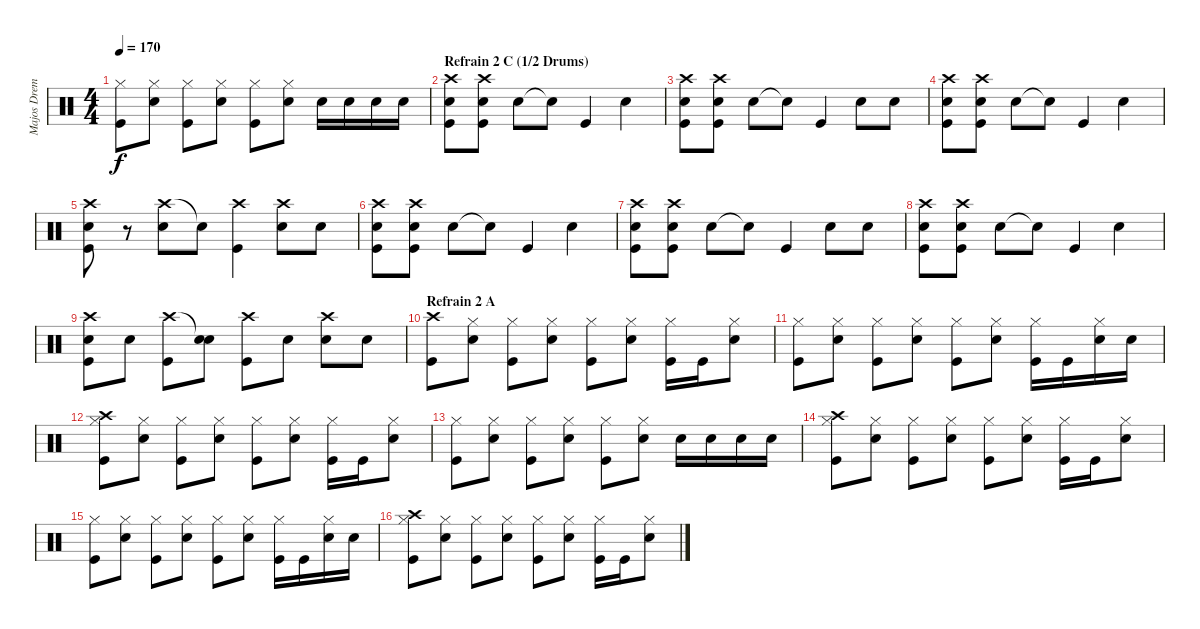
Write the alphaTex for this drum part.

\track ("Majos Dremmelei" "Majos Drem") {instrument percussion}
\staff {score}
\articulation defaults
\ts (4 4)
\tempo 170
\clef neutral
\ks c
("Hi-Hat (closed)" "Kick (hit)").8{dy f} ("Hi-Hat (closed)" "Electric Snare (hit)").8 ("Hi-Hat (closed)" "Kick (hit)").8 ("Hi-Hat (closed)" "Electric Snare (hit)").8 ("Hi-Hat (closed)" "Kick (hit)").8 ("Hi-Hat (closed)" "Electric Snare (hit)").8 "Electric Snare (hit)".16 "Electric Snare (hit)".16 "Electric Snare (hit)".16 "Electric Snare (hit)".16 |
\section ("" "Refrain 2 C (1/2 Drums)")
("Crash high (hit)" "Electric Snare (hit)" "Kick (hit)").8 ("Crash high (hit)" "Electric Snare (hit)" "Kick (hit)").8 "Electric Snare (hit)".8 "Snare (hit)"{t}.8 "Kick (hit)".4 "Electric Snare (hit)".4 |
("Crash high (hit)" "Electric Snare (hit)" "Kick (hit)").8 ("Crash high (hit)" "Electric Snare (hit)" "Kick (hit)").8 "Electric Snare (hit)".8 "Snare (hit)"{t}.8 "Kick (hit)".4 "Electric Snare (hit)".8 "Electric Snare (hit)".8 |
("Crash high (hit)" "Electric Snare (hit)" "Kick (hit)").8 ("Crash high (hit)" "Electric Snare (hit)" "Kick (hit)").8 "Electric Snare (hit)".8 "Snare (hit)"{t}.8 "Kick (hit)".4 "Electric Snare (hit)".4 |
("Crash high (hit)" "Electric Snare (hit)" "Kick (hit)").8 r.8 ("Crash high (hit)" "Electric Snare (hit)").8 "Snare (hit)"{t}.8 ("Crash high (hit)" "Kick (hit)").4 ("Crash high (hit)" "Electric Snare (hit)").8 "Electric Snare (hit)".8 |
("Crash high (hit)" "Electric Snare (hit)" "Kick (hit)").8 ("Crash high (hit)" "Electric Snare (hit)" "Kick (hit)").8 "Electric Snare (hit)".8 "Snare (hit)"{t}.8 "Kick (hit)".4 "Electric Snare (hit)".4 |
("Crash high (hit)" "Electric Snare (hit)" "Kick (hit)").8 ("Crash high (hit)" "Electric Snare (hit)" "Kick (hit)").8 "Electric Snare (hit)".8 "Snare (hit)"{t}.8 "Kick (hit)".4 "Electric Snare (hit)".8 "Electric Snare (hit)".8 |
("Crash high (hit)" "Electric Snare (hit)" "Kick (hit)").8 ("Crash high (hit)" "Electric Snare (hit)" "Kick (hit)").8 "Electric Snare (hit)".8 "Snare (hit)"{t}.8 "Kick (hit)".4 "Electric Snare (hit)".4 |
("Crash high (hit)" "Electric Snare (hit)" "Kick (hit)").8 "Electric Snare (hit)".8 ("Crash high (hit)" "Kick (hit)").8 ("Snare (hit)"{t} "Electric Snare (hit)").8 ("Crash high (hit)" "Kick (hit)").8 "Electric Snare (hit)".8 ("Crash high (hit)" "Electric Snare (hit)").8 "Electric Snare (hit)".8 |
\section ("" "Refrain 2 A")
("Crash high (hit)" "Kick (hit)").8 ("Hi-Hat (closed)" "Electric Snare (hit)").8 ("Hi-Hat (closed)" "Kick (hit)").8 ("Hi-Hat (closed)" "Electric Snare (hit)").8 ("Hi-Hat (closed)" "Kick (hit)").8 ("Hi-Hat (closed)" "Electric Snare (hit)").8 ("Hi-Hat (closed)" "Kick (hit)").16 "Kick (hit)".16 ("Hi-Hat (closed)" "Electric Snare (hit)").8 |
("Hi-Hat (closed)" "Kick (hit)").8 ("Hi-Hat (closed)" "Electric Snare (hit)").8 ("Hi-Hat (closed)" "Kick (hit)").8 ("Hi-Hat (closed)" "Electric Snare (hit)").8 ("Hi-Hat (closed)" "Kick (hit)").8 ("Hi-Hat (closed)" "Electric Snare (hit)").8 ("Hi-Hat (closed)" "Kick (hit)").16 "Kick (hit)".16 ("Hi-Hat (closed)" "Electric Snare (hit)").16 "Electric Snare (hit)".16 |
("Crash high (hit)" "Hi-Hat (closed)" "Kick (hit)").8 ("Hi-Hat (closed)" "Electric Snare (hit)").8 ("Hi-Hat (closed)" "Kick (hit)").8 ("Hi-Hat (closed)" "Electric Snare (hit)").8 ("Hi-Hat (closed)" "Kick (hit)").8 ("Hi-Hat (closed)" "Electric Snare (hit)").8 ("Hi-Hat (closed)" "Kick (hit)").16 "Kick (hit)".16 ("Hi-Hat (closed)" "Electric Snare (hit)").8 |
("Hi-Hat (closed)" "Kick (hit)").8 ("Hi-Hat (closed)" "Electric Snare (hit)").8 ("Hi-Hat (closed)" "Kick (hit)").8 ("Hi-Hat (closed)" "Electric Snare (hit)").8 ("Hi-Hat (closed)" "Kick (hit)").8 ("Hi-Hat (closed)" "Electric Snare (hit)").8 "Electric Snare (hit)".16 "Electric Snare (hit)".16 "Electric Snare (hit)".16 "Electric Snare (hit)".16 |
("Crash high (hit)" "Hi-Hat (closed)" "Kick (hit)").8 ("Hi-Hat (closed)" "Electric Snare (hit)").8 ("Hi-Hat (closed)" "Kick (hit)").8 ("Hi-Hat (closed)" "Electric Snare (hit)").8 ("Hi-Hat (closed)" "Kick (hit)").8 ("Hi-Hat (closed)" "Electric Snare (hit)").8 ("Hi-Hat (closed)" "Kick (hit)").16 "Kick (hit)".16 ("Hi-Hat (closed)" "Electric Snare (hit)").8 |
("Hi-Hat (closed)" "Kick (hit)").8 ("Hi-Hat (closed)" "Electric Snare (hit)").8 ("Hi-Hat (closed)" "Kick (hit)").8 ("Hi-Hat (closed)" "Electric Snare (hit)").8 ("Hi-Hat (closed)" "Kick (hit)").8 ("Hi-Hat (closed)" "Electric Snare (hit)").8 ("Hi-Hat (closed)" "Kick (hit)").16 "Kick (hit)".16 ("Hi-Hat (closed)" "Electric Snare (hit)").16 "Electric Snare (hit)".16 |
("Crash high (hit)" "Hi-Hat (closed)" "Kick (hit)").8 ("Hi-Hat (closed)" "Electric Snare (hit)").8 ("Hi-Hat (closed)" "Kick (hit)").8 ("Hi-Hat (closed)" "Electric Snare (hit)").8 ("Hi-Hat (closed)" "Kick (hit)").8 ("Hi-Hat (closed)" "Electric Snare (hit)").8 ("Hi-Hat (closed)" "Kick (hit)").16 "Kick (hit)".16 ("Hi-Hat (closed)" "Electric Snare (hit)").8
